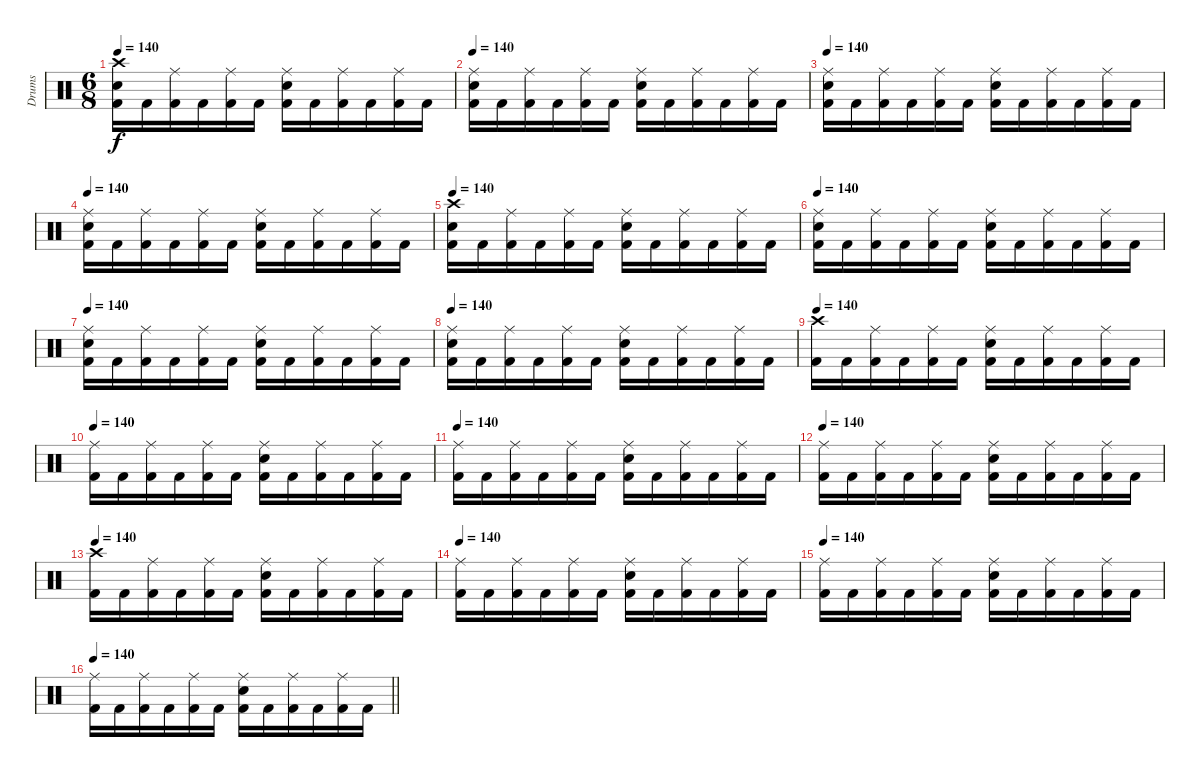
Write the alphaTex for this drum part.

\track ("Drums" "Drums") {instrument percussion}
\staff {score}
\articulation defaults
\ts (6 8)
\tempo 140
\clef neutral
\ks c
("Kick (hit) 2" "Electric Snare (hit)" "Crash high (hit)").16{dy f} "Kick (hit) 2".16 ("Kick (hit) 2" "Ride (middle)").16 "Kick (hit) 2".16 ("Kick (hit) 2" "Ride (middle)").16 "Kick (hit) 2".16 ("Kick (hit) 2" "Electric Snare (hit)" "Ride (middle)").16 "Kick (hit) 2".16 ("Kick (hit) 2" "Ride (middle)").16 "Kick (hit) 2".16 ("Kick (hit) 2" "Ride (middle)").16 "Kick (hit) 2".16 |
\tempo 140
("Kick (hit) 2" "Electric Snare (hit)" "Ride (middle)").16 "Kick (hit) 2".16 ("Kick (hit) 2" "Ride (middle)").16 "Kick (hit) 2".16 ("Kick (hit) 2" "Ride (middle)").16 "Kick (hit) 2".16 ("Kick (hit) 2" "Electric Snare (hit)" "Ride (middle)").16 "Kick (hit) 2".16 ("Kick (hit) 2" "Ride (middle)").16 "Kick (hit) 2".16 ("Kick (hit) 2" "Ride (middle)").16 "Kick (hit) 2".16 |
\tempo 140
("Kick (hit) 2" "Electric Snare (hit)" "Ride (middle)").16 "Kick (hit) 2".16 ("Kick (hit) 2" "Ride (middle)").16 "Kick (hit) 2".16 ("Kick (hit) 2" "Ride (middle)").16 "Kick (hit) 2".16 ("Kick (hit) 2" "Electric Snare (hit)" "Ride (middle)").16 "Kick (hit) 2".16 ("Kick (hit) 2" "Ride (middle)").16 "Kick (hit) 2".16 ("Kick (hit) 2" "Ride (middle)").16 "Kick (hit) 2".16 |
\tempo 140
("Kick (hit) 2" "Electric Snare (hit)" "Ride (middle)").16 "Kick (hit) 2".16 ("Kick (hit) 2" "Ride (middle)").16 "Kick (hit) 2".16 ("Kick (hit) 2" "Ride (middle)").16 "Kick (hit) 2".16 ("Kick (hit) 2" "Electric Snare (hit)" "Ride (middle)").16 "Kick (hit) 2".16 ("Kick (hit) 2" "Ride (middle)").16 "Kick (hit) 2".16 ("Kick (hit) 2" "Ride (middle)").16 "Kick (hit) 2".16 |
\tempo 140
("Kick (hit) 2" "Electric Snare (hit)" "Crash high (hit)").16 "Kick (hit) 2".16 ("Kick (hit) 2" "Ride (middle)").16 "Kick (hit) 2".16 ("Kick (hit) 2" "Ride (middle)").16 "Kick (hit) 2".16 ("Kick (hit) 2" "Electric Snare (hit)" "Ride (middle)").16 "Kick (hit) 2".16 ("Kick (hit) 2" "Ride (middle)").16 "Kick (hit) 2".16 ("Kick (hit) 2" "Ride (middle)").16 "Kick (hit) 2".16 |
\tempo 140
("Kick (hit) 2" "Electric Snare (hit)" "Ride (middle)").16 "Kick (hit) 2".16 ("Kick (hit) 2" "Ride (middle)").16 "Kick (hit) 2".16 ("Kick (hit) 2" "Ride (middle)").16 "Kick (hit) 2".16 ("Kick (hit) 2" "Electric Snare (hit)" "Ride (middle)").16 "Kick (hit) 2".16 ("Kick (hit) 2" "Ride (middle)").16 "Kick (hit) 2".16 ("Kick (hit) 2" "Ride (middle)").16 "Kick (hit) 2".16 |
\tempo 140
("Kick (hit) 2" "Electric Snare (hit)" "Ride (middle)").16 "Kick (hit) 2".16 ("Kick (hit) 2" "Ride (middle)").16 "Kick (hit) 2".16 ("Kick (hit) 2" "Ride (middle)").16 "Kick (hit) 2".16 ("Kick (hit) 2" "Electric Snare (hit)" "Ride (middle)").16 "Kick (hit) 2".16 ("Kick (hit) 2" "Ride (middle)").16 "Kick (hit) 2".16 ("Kick (hit) 2" "Ride (middle)").16 "Kick (hit) 2".16 |
\tempo 140
("Kick (hit) 2" "Electric Snare (hit)" "Ride (middle)").16 "Kick (hit) 2".16 ("Kick (hit) 2" "Ride (middle)").16 "Kick (hit) 2".16 ("Kick (hit) 2" "Ride (middle)").16 "Kick (hit) 2".16 ("Kick (hit) 2" "Electric Snare (hit)" "Ride (middle)").16 "Kick (hit) 2".16 ("Kick (hit) 2" "Ride (middle)").16 "Kick (hit) 2".16 ("Kick (hit) 2" "Ride (middle)").16 "Kick (hit) 2".16 |
\tempo 140
("Kick (hit) 2" "Crash high (hit)").16 "Kick (hit) 2".16 ("Kick (hit) 2" "Ride (middle)").16 "Kick (hit) 2".16 ("Kick (hit) 2" "Ride (middle)").16 "Kick (hit) 2".16 ("Kick (hit) 2" "Electric Snare (hit)" "Ride (middle)").16 "Kick (hit) 2".16 ("Kick (hit) 2" "Ride (middle)").16 "Kick (hit) 2".16 ("Kick (hit) 2" "Ride (middle)").16 "Kick (hit) 2".16 |
\tempo 140
("Kick (hit) 2" "Ride (middle)").16 "Kick (hit) 2".16 ("Kick (hit) 2" "Ride (middle)").16 "Kick (hit) 2".16 ("Kick (hit) 2" "Ride (middle)").16 "Kick (hit) 2".16 ("Kick (hit) 2" "Electric Snare (hit)" "Ride (middle)").16 "Kick (hit) 2".16 ("Kick (hit) 2" "Ride (middle)").16 "Kick (hit) 2".16 ("Kick (hit) 2" "Ride (middle)").16 "Kick (hit) 2".16 |
\tempo 140
("Kick (hit) 2" "Ride (middle)").16 "Kick (hit) 2".16 ("Kick (hit) 2" "Ride (middle)").16 "Kick (hit) 2".16 ("Kick (hit) 2" "Ride (middle)").16 "Kick (hit) 2".16 ("Kick (hit) 2" "Electric Snare (hit)" "Ride (middle)").16 "Kick (hit) 2".16 ("Kick (hit) 2" "Ride (middle)").16 "Kick (hit) 2".16 ("Kick (hit) 2" "Ride (middle)").16 "Kick (hit) 2".16 |
\tempo 140
("Kick (hit) 2" "Ride (middle)").16 "Kick (hit) 2".16 ("Kick (hit) 2" "Ride (middle)").16 "Kick (hit) 2".16 ("Kick (hit) 2" "Ride (middle)").16 "Kick (hit) 2".16 ("Kick (hit) 2" "Electric Snare (hit)" "Ride (middle)").16 "Kick (hit) 2".16 ("Kick (hit) 2" "Ride (middle)").16 "Kick (hit) 2".16 ("Kick (hit) 2" "Ride (middle)").16 "Kick (hit) 2".16 |
\tempo 140
("Kick (hit) 2" "Crash high (hit)").16 "Kick (hit) 2".16 ("Kick (hit) 2" "Ride (middle)").16 "Kick (hit) 2".16 ("Kick (hit) 2" "Ride (middle)").16 "Kick (hit) 2".16 ("Kick (hit) 2" "Electric Snare (hit)" "Ride (middle)").16 "Kick (hit) 2".16 ("Kick (hit) 2" "Ride (middle)").16 "Kick (hit) 2".16 ("Kick (hit) 2" "Ride (middle)").16 "Kick (hit) 2".16 |
\tempo 140
("Kick (hit) 2" "Ride (middle)").16 "Kick (hit) 2".16 ("Kick (hit) 2" "Ride (middle)").16 "Kick (hit) 2".16 ("Kick (hit) 2" "Ride (middle)").16 "Kick (hit) 2".16 ("Kick (hit) 2" "Electric Snare (hit)" "Ride (middle)").16 "Kick (hit) 2".16 ("Kick (hit) 2" "Ride (middle)").16 "Kick (hit) 2".16 ("Kick (hit) 2" "Ride (middle)").16 "Kick (hit) 2".16 |
\tempo 140
("Kick (hit) 2" "Ride (middle)").16 "Kick (hit) 2".16 ("Kick (hit) 2" "Ride (middle)").16 "Kick (hit) 2".16 ("Kick (hit) 2" "Ride (middle)").16 "Kick (hit) 2".16 ("Kick (hit) 2" "Electric Snare (hit)" "Ride (middle)").16 "Kick (hit) 2".16 ("Kick (hit) 2" "Ride (middle)").16 "Kick (hit) 2".16 ("Kick (hit) 2" "Ride (middle)").16 "Kick (hit) 2".16 |
\tempo 140
\barLineRight lightlight
("Kick (hit) 2" "Ride (middle)").16 "Kick (hit) 2".16 ("Kick (hit) 2" "Ride (middle)").16 "Kick (hit) 2".16 ("Kick (hit) 2" "Ride (middle)").16 "Kick (hit) 2".16 ("Kick (hit) 2" "Electric Snare (hit)" "Ride (middle)").16 "Kick (hit) 2".16 ("Kick (hit) 2" "Ride (middle)").16 "Kick (hit) 2".16 ("Kick (hit) 2" "Ride (middle)").16 "Kick (hit) 2".16
